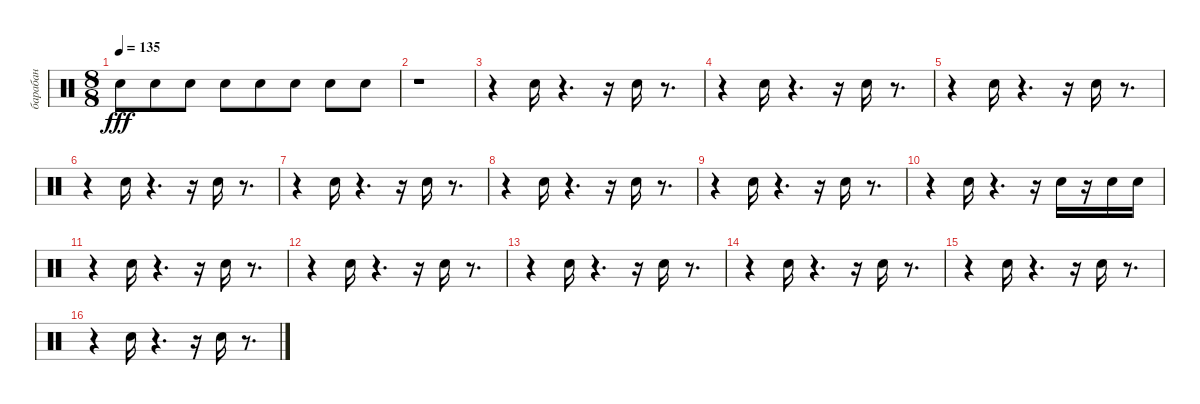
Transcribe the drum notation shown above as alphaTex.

\track ("барабан" "барабан") {instrument percussion}
\staff {score}
\articulation defaults
\ts (8 8)
\tempo 135
\clef neutral
\ks c "Snare (hit) 2".8{dy fff} "Snare (hit) 2".8 "Snare (hit) 2".8 "Snare (hit) 2".8 "Snare (hit) 2".8 "Snare (hit) 2".8 "Snare (hit) 2".8 "Snare (hit) 2".8
|
r.1 |
r.4 "Snare (hit) 2".16 r.4{d} r.16 "Snare (hit) 2".16 r.8{d} |
r.4 "Snare (hit) 2".16 r.4{d} r.16 "Snare (hit) 2".16 r.8{d} |
r.4 "Snare (hit) 2".16 r.4{d} r.16 "Snare (hit) 2".16 r.8{d} |
r.4 "Snare (hit) 2".16 r.4{d} r.16 "Snare (hit) 2".16 r.8{d} |
r.4 "Snare (hit) 2".16 r.4{d} r.16 "Snare (hit) 2".16 r.8{d} |
r.4 "Snare (hit) 2".16 r.4{d} r.16 "Snare (hit) 2".16 r.8{d} |
r.4 "Snare (hit) 2".16 r.4{d} r.16 "Snare (hit) 2".16 r.8{d} |
r.4 "Snare (hit) 2".16 r.4{d} r.16 "Snare (hit) 2".16 r.16 "Snare (hit) 2".16 "Snare (hit) 2".16 |
r.4 "Snare (hit) 2".16 r.4{d} r.16 "Snare (hit) 2".16 r.8{d} |
r.4 "Snare (hit) 2".16 r.4{d} r.16 "Snare (hit) 2".16 r.8{d} |
r.4 "Snare (hit) 2".16 r.4{d} r.16 "Snare (hit) 2".16 r.8{d} |
r.4 "Snare (hit) 2".16 r.4{d} r.16 "Snare (hit) 2".16 r.8{d} |
r.4 "Snare (hit) 2".16 r.4{d} r.16 "Snare (hit) 2".16 r.8{d} |
r.4 "Snare (hit) 2".16 r.4{d} r.16 "Snare (hit) 2".16 r.8{d}
